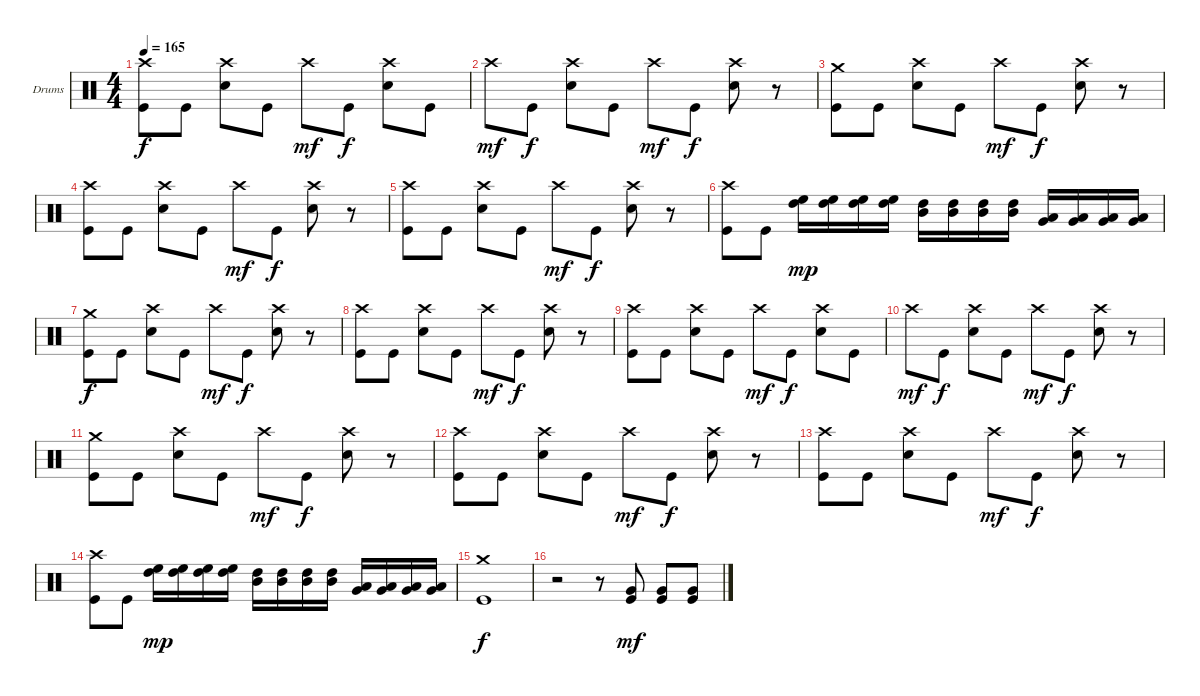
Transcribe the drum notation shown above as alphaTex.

\bracketExtendMode groupsimilarinstruments
\firstSystemTrackNameOrientation horizontal
\otherSystemsTrackNameOrientation horizontal
\track ("Drumkit" "Drums") {instrument percussion}
\staff {score}
\articulation defaults
\ts (4 4)
\tempo 165
\clef neutral
\ks c
("Kick (hit)" "Crash high (hit)").8{dy f} "Kick (hit)".8 ("Snare (hit) 2" "Crash high (hit)").8 "Kick (hit)".8 "Crash high (hit)".8{dy mf} "Kick (hit)".8{dy f} ("Snare (hit) 2" "Crash high (hit)").8 "Kick (hit)".8 |
"Crash high (hit)".8{dy mf} "Kick (hit)".8{dy f} ("Snare (hit) 2" "Crash high (hit)").8 "Kick (hit)".8 "Crash high (hit)".8{dy mf} "Kick (hit)".8{dy f} ("Snare (hit) 2" "Crash high (hit)").8 r.8 |
("Kick (hit)" "Crash medium (hit)").8 "Kick (hit)".8 ("Snare (hit) 2" "Crash high (hit)").8 "Kick (hit)".8 "Crash high (hit)".8{dy mf} "Kick (hit)".8{dy f} ("Snare (hit) 2" "Crash high (hit)").8 r.8 |
("Kick (hit)" "Crash high (hit)").8 "Kick (hit)".8 ("Snare (hit) 2" "Crash high (hit)").8 "Kick (hit)".8 "Crash high (hit)".8{dy mf} "Kick (hit)".8{dy f} ("Snare (hit) 2" "Crash high (hit)").8 r.8 |
("Kick (hit)" "Crash high (hit)").8 "Kick (hit)".8 ("Snare (hit) 2" "Crash high (hit)").8 "Kick (hit)".8 "Crash high (hit)".8{dy mf} "Kick (hit)".8{dy f} ("Snare (hit) 2" "Crash high (hit)").8 r.8 |
("Kick (hit)" "Crash high (hit)").8 "Kick (hit)".8 ("High Floor Tom (hit)" "High Tom (hit)").16{dy mp} ("High Floor Tom (hit)" "High Tom (hit)").16 ("High Floor Tom (hit)" "High Tom (hit)").16 ("High Floor Tom (hit)" "High Tom (hit)").16 ("High Tom (hit)" "Mid Tom (hit)").16 ("High Tom (hit)" "Mid Tom (hit)").16 ("High Tom (hit)" "Mid Tom (hit)").16 ("High Tom (hit)" "Mid Tom (hit)").16 ("Low Tom (hit)" "Very Low Tom (hit)").16 ("Low Tom (hit)" "Very Low Tom (hit)").16 ("Low Tom (hit)" "Very Low Tom (hit)").16 ("Low Tom (hit)" "Very Low Tom (hit)").16 |
("Kick (hit)" "Crash medium (hit)").8{dy f} "Kick (hit)".8 ("Snare (hit) 2" "Crash high (hit)").8 "Kick (hit)".8 "Crash high (hit)".8{dy mf} "Kick (hit)".8{dy f} ("Snare (hit) 2" "Crash high (hit)").8 r.8 |
("Kick (hit)" "Crash high (hit)").8 "Kick (hit)".8 ("Snare (hit) 2" "Crash high (hit)").8 "Kick (hit)".8 "Crash high (hit)".8{dy mf} "Kick (hit)".8{dy f} ("Snare (hit) 2" "Crash high (hit)").8 r.8 |
("Kick (hit)" "Crash high (hit)").8 "Kick (hit)".8 ("Snare (hit) 2" "Crash high (hit)").8 "Kick (hit)".8 "Crash high (hit)".8{dy mf} "Kick (hit)".8{dy f} ("Snare (hit) 2" "Crash high (hit)").8 "Kick (hit)".8 |
"Crash high (hit)".8{dy mf} "Kick (hit)".8{dy f} ("Snare (hit) 2" "Crash high (hit)").8 "Kick (hit)".8 "Crash high (hit)".8{dy mf} "Kick (hit)".8{dy f} ("Snare (hit) 2" "Crash high (hit)").8 r.8 |
("Kick (hit)" "Crash medium (hit)").8 "Kick (hit)".8 ("Snare (hit) 2" "Crash high (hit)").8 "Kick (hit)".8 "Crash high (hit)".8{dy mf} "Kick (hit)".8{dy f} ("Snare (hit) 2" "Crash high (hit)").8 r.8 |
("Kick (hit)" "Crash high (hit)").8 "Kick (hit)".8 ("Snare (hit) 2" "Crash high (hit)").8 "Kick (hit)".8 "Crash high (hit)".8{dy mf} "Kick (hit)".8{dy f} ("Snare (hit) 2" "Crash high (hit)").8 r.8 |
("Kick (hit)" "Crash high (hit)").8 "Kick (hit)".8 ("Snare (hit) 2" "Crash high (hit)").8 "Kick (hit)".8 "Crash high (hit)".8{dy mf} "Kick (hit)".8{dy f} ("Snare (hit) 2" "Crash high (hit)").8 r.8 |
("Kick (hit)" "Crash high (hit)").8 "Kick (hit)".8 ("High Floor Tom (hit)" "High Tom (hit)").16{dy mp} ("High Floor Tom (hit)" "High Tom (hit)").16 ("High Floor Tom (hit)" "High Tom (hit)").16 ("High Floor Tom (hit)" "High Tom (hit)").16 ("High Tom (hit)" "Mid Tom (hit)").16 ("High Tom (hit)" "Mid Tom (hit)").16 ("High Tom (hit)" "Mid Tom (hit)").16 ("High Tom (hit)" "Mid Tom (hit)").16 ("Low Tom (hit)" "Very Low Tom (hit)").16 ("Low Tom (hit)" "Very Low Tom (hit)").16 ("Low Tom (hit)" "Very Low Tom (hit)").16 ("Low Tom (hit)" "Very Low Tom (hit)").16 |
("Kick (hit)" "Crash medium (hit)").1{dy f} |
r.2 r.8 ("Kick (hit)" "Very Low Tom (hit)").8{dy mf} ("Kick (hit)" "Very Low Tom (hit)").8 ("Kick (hit)" "Very Low Tom (hit)").8
